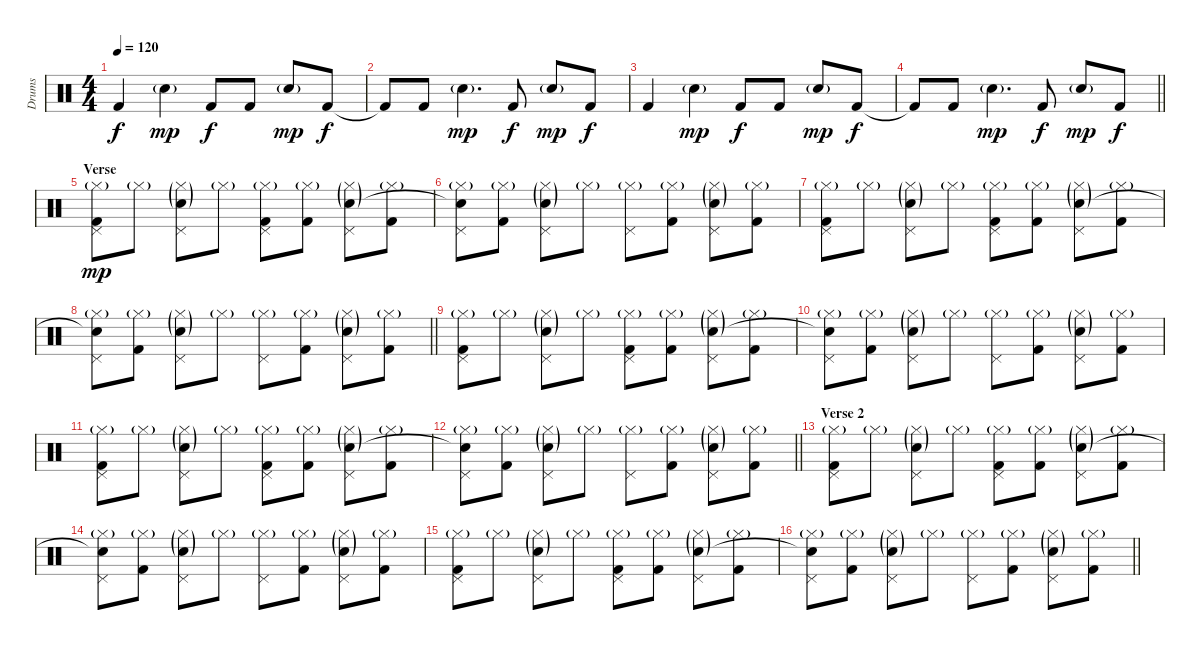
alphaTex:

\track ("Drums" "Drums") {instrument percussion}
\staff {score}
\articulation defaults
\ts (4 4)
\section ("" "")
\tempo 120
\clef neutral
\ks c "Kick (hit) 2".4{dy f} "Snare (hit) 2"{g}.4{dy mp} "Kick (hit) 2".8{dy f} "Kick (hit) 2".8 "Snare (hit) 2"{g}.8{dy mp} "Kick (hit) 2".8{dy f}
|
"Kick (hit) 2"{t}.8 "Kick (hit) 2".8 "Snare (hit) 2"{g}.4{d dy mp} "Kick (hit) 2".8{dy f} "Snare (hit) 2"{g}.8{dy mp} "Kick (hit) 2".8{dy f} |
"Kick (hit) 2".4 "Snare (hit) 2"{g}.4{dy mp} "Kick (hit) 2".8{dy f} "Kick (hit) 2".8 "Snare (hit) 2"{g}.8{dy mp} "Kick (hit) 2".8{dy f} |
\barLineRight lightlight "Kick (hit) 2"{t}.8 "Kick (hit) 2".8 "Snare (hit) 2"{g}.4{d dy mp} "Kick (hit) 2".8{dy f} "Snare (hit) 2"{g}.8{dy mp} "Kick (hit) 2".8{dy f}
|
\section ("" "Verse")
("Pedal Hi-Hat (hit)" "Hi-Hat (closed)"{g} "Kick (hit) 2").8{dy mp} "Hi-Hat (closed)"{g}.8 ("Pedal Hi-Hat (hit)" "Hi-Hat (closed)"{g} "Snare (hit) 2"{g}).8 "Hi-Hat (closed)"{g}.8 ("Pedal Hi-Hat (hit)" "Hi-Hat (closed)"{g} "Kick (hit) 2").8 ("Hi-Hat (closed)"{g} "Kick (hit) 2").8 ("Pedal Hi-Hat (hit)" "Hi-Hat (closed)"{g} "Snare (hit) 2"{g}).8 ("Hi-Hat (closed)"{g} "Kick (hit) 2").8 |
("Pedal Hi-Hat (hit)" "Hi-Hat (closed)"{g} "Snare (hit)"{t}).8 ("Hi-Hat (closed)"{g} "Kick (hit) 2").8 ("Pedal Hi-Hat (hit)" "Hi-Hat (closed)"{g} "Snare (hit) 2"{g}).8 "Hi-Hat (closed)"{g}.8 ("Pedal Hi-Hat (hit)" "Hi-Hat (closed)"{g}).8 ("Hi-Hat (closed)"{g} "Kick (hit) 2").8 ("Pedal Hi-Hat (hit)" "Hi-Hat (closed)"{g} "Snare (hit) 2"{g}).8 ("Hi-Hat (closed)"{g} "Kick (hit) 2").8 |
("Pedal Hi-Hat (hit)" "Hi-Hat (closed)"{g} "Kick (hit) 2").8 "Hi-Hat (closed)"{g}.8 ("Pedal Hi-Hat (hit)" "Hi-Hat (closed)"{g} "Snare (hit) 2"{g}).8 "Hi-Hat (closed)"{g}.8 ("Pedal Hi-Hat (hit)" "Hi-Hat (closed)"{g} "Kick (hit) 2").8 ("Hi-Hat (closed)"{g} "Kick (hit) 2").8 ("Pedal Hi-Hat (hit)" "Hi-Hat (closed)"{g} "Snare (hit) 2"{g}).8 ("Hi-Hat (closed)"{g} "Kick (hit) 2").8 |
\barLineRight lightlight
("Pedal Hi-Hat (hit)" "Hi-Hat (closed)"{g} "Snare (hit)"{t}).8 ("Hi-Hat (closed)"{g} "Kick (hit) 2").8 ("Pedal Hi-Hat (hit)" "Hi-Hat (closed)"{g} "Snare (hit) 2"{g}).8 "Hi-Hat (closed)"{g}.8 ("Pedal Hi-Hat (hit)" "Hi-Hat (closed)"{g}).8 ("Hi-Hat (closed)"{g} "Kick (hit) 2").8 ("Pedal Hi-Hat (hit)" "Hi-Hat (closed)"{g} "Snare (hit) 2"{g}).8 ("Hi-Hat (closed)"{g} "Kick (hit) 2").8 |
("Pedal Hi-Hat (hit)" "Hi-Hat (closed)"{g} "Kick (hit) 2").8 "Hi-Hat (closed)"{g}.8 ("Pedal Hi-Hat (hit)" "Hi-Hat (closed)"{g} "Snare (hit) 2"{g}).8 "Hi-Hat (closed)"{g}.8 ("Pedal Hi-Hat (hit)" "Hi-Hat (closed)"{g} "Kick (hit) 2").8 ("Hi-Hat (closed)"{g} "Kick (hit) 2").8 ("Pedal Hi-Hat (hit)" "Hi-Hat (closed)"{g} "Snare (hit) 2"{g}).8 ("Hi-Hat (closed)"{g} "Kick (hit) 2").8 |
("Pedal Hi-Hat (hit)" "Hi-Hat (closed)"{g} "Snare (hit)"{t}).8 ("Hi-Hat (closed)"{g} "Kick (hit) 2").8 ("Pedal Hi-Hat (hit)" "Hi-Hat (closed)"{g} "Snare (hit) 2"{g}).8 "Hi-Hat (closed)"{g}.8 ("Pedal Hi-Hat (hit)" "Hi-Hat (closed)"{g}).8 ("Hi-Hat (closed)"{g} "Kick (hit) 2").8 ("Pedal Hi-Hat (hit)" "Hi-Hat (closed)"{g} "Snare (hit) 2"{g}).8 ("Hi-Hat (closed)"{g} "Kick (hit) 2").8 |
("Pedal Hi-Hat (hit)" "Hi-Hat (closed)"{g} "Kick (hit) 2").8 "Hi-Hat (closed)"{g}.8 ("Pedal Hi-Hat (hit)" "Hi-Hat (closed)"{g} "Snare (hit) 2"{g}).8 "Hi-Hat (closed)"{g}.8 ("Pedal Hi-Hat (hit)" "Hi-Hat (closed)"{g} "Kick (hit) 2").8 ("Hi-Hat (closed)"{g} "Kick (hit) 2").8 ("Pedal Hi-Hat (hit)" "Hi-Hat (closed)"{g} "Snare (hit) 2"{g}).8 ("Hi-Hat (closed)"{g} "Kick (hit) 2").8 |
\barLineRight lightlight
("Pedal Hi-Hat (hit)" "Hi-Hat (closed)"{g} "Snare (hit)"{t}).8 ("Hi-Hat (closed)"{g} "Kick (hit) 2").8 ("Pedal Hi-Hat (hit)" "Hi-Hat (closed)"{g} "Snare (hit) 2"{g}).8 "Hi-Hat (closed)"{g}.8 ("Pedal Hi-Hat (hit)" "Hi-Hat (closed)"{g}).8 ("Hi-Hat (closed)"{g} "Kick (hit) 2").8 ("Pedal Hi-Hat (hit)" "Hi-Hat (closed)"{g} "Snare (hit) 2"{g}).8 ("Hi-Hat (closed)"{g} "Kick (hit) 2").8 |
\section ("" "Verse 2")
("Pedal Hi-Hat (hit)" "Hi-Hat (closed)"{g} "Kick (hit) 2").8 "Hi-Hat (closed)"{g}.8 ("Pedal Hi-Hat (hit)" "Hi-Hat (closed)"{g} "Snare (hit) 2"{g}).8 "Hi-Hat (closed)"{g}.8 ("Pedal Hi-Hat (hit)" "Hi-Hat (closed)"{g} "Kick (hit) 2").8 ("Hi-Hat (closed)"{g} "Kick (hit) 2").8 ("Pedal Hi-Hat (hit)" "Hi-Hat (closed)"{g} "Snare (hit) 2"{g}).8 ("Hi-Hat (closed)"{g} "Kick (hit) 2").8 |
("Pedal Hi-Hat (hit)" "Hi-Hat (closed)"{g} "Snare (hit)"{t}).8 ("Hi-Hat (closed)"{g} "Kick (hit) 2").8 ("Pedal Hi-Hat (hit)" "Hi-Hat (closed)"{g} "Snare (hit) 2"{g}).8 "Hi-Hat (closed)"{g}.8 ("Pedal Hi-Hat (hit)" "Hi-Hat (closed)"{g}).8 ("Hi-Hat (closed)"{g} "Kick (hit) 2").8 ("Pedal Hi-Hat (hit)" "Hi-Hat (closed)"{g} "Snare (hit) 2"{g}).8 ("Hi-Hat (closed)"{g} "Kick (hit) 2").8 |
("Pedal Hi-Hat (hit)" "Hi-Hat (closed)"{g} "Kick (hit) 2").8 "Hi-Hat (closed)"{g}.8 ("Pedal Hi-Hat (hit)" "Hi-Hat (closed)"{g} "Snare (hit) 2"{g}).8 "Hi-Hat (closed)"{g}.8 ("Pedal Hi-Hat (hit)" "Hi-Hat (closed)"{g} "Kick (hit) 2").8 ("Hi-Hat (closed)"{g} "Kick (hit) 2").8 ("Pedal Hi-Hat (hit)" "Hi-Hat (closed)"{g} "Snare (hit) 2"{g}).8 ("Hi-Hat (closed)"{g} "Kick (hit) 2").8 |
\barLineRight lightlight
("Pedal Hi-Hat (hit)" "Hi-Hat (closed)"{g} "Snare (hit)"{t}).8 ("Hi-Hat (closed)"{g} "Kick (hit) 2").8 ("Pedal Hi-Hat (hit)" "Hi-Hat (closed)"{g} "Snare (hit) 2"{g}).8 "Hi-Hat (closed)"{g}.8 ("Pedal Hi-Hat (hit)" "Hi-Hat (closed)"{g}).8 ("Hi-Hat (closed)"{g} "Kick (hit) 2").8 ("Pedal Hi-Hat (hit)" "Hi-Hat (closed)"{g} "Snare (hit) 2"{g}).8 ("Hi-Hat (closed)"{g} "Kick (hit) 2").8
